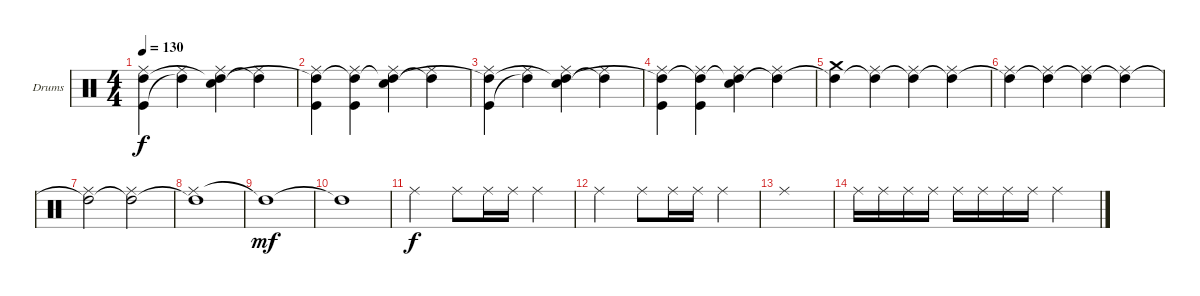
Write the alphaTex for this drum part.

\bracketExtendMode groupsimilarinstruments
\firstSystemTrackNameOrientation horizontal
\otherSystemsTrackNameOrientation horizontal
\track ("Drumkit" "Drums") {instrument percussion}
\staff {score}
\articulation defaults
\ts (4 4)
\tempo 130
\clef neutral
\ks c
("Ride (middle)" "Kick (hit)" "High Tom (hit)"{t}).4{dy f} ("Ride (middle)" "High Tom (hit)"{t}).4 ("Ride (middle)" "Snare (hit) 2" "High Tom (hit)"{t}).4 ("Ride (middle)" "High Tom (hit)"{t}).4 |
("Ride (middle)" "Kick (hit)" "High Tom (hit)"{t}).4 ("Ride (middle)" "Kick (hit)" "High Tom (hit)"{t}).4 ("Ride (middle)" "Snare (hit) 2" "High Tom (hit)"{t}).4 ("Ride (middle)" "High Tom (hit)"{t}).4 |
("Ride (middle)" "Kick (hit)" "High Tom (hit)"{t}).4 ("Ride (middle)" "High Tom (hit)"{t}).4 ("Ride (middle)" "Snare (hit) 2" "High Tom (hit)"{t}).4 ("Ride (middle)" "High Tom (hit)"{t}).4 |
("Ride (middle)" "Kick (hit)" "High Tom (hit)"{t}).4 ("Ride (middle)" "Kick (hit)" "High Tom (hit)"{t}).4 ("Ride (middle)" "Snare (hit) 2" "High Tom (hit)"{t}).4 ("Ride (middle)" "High Tom (hit)"{t}).4 |
("Crash medium (hit)" "High Tom (hit)"{t}).4 ("Ride (middle)" "High Tom (hit)"{t}).4 ("Ride (middle)" "High Tom (hit)"{t}).4 ("Ride (middle)" "High Tom (hit)"{t}).4 |
("Ride (middle)" "High Tom (hit)"{t}).4 ("Ride (middle)" "High Tom (hit)"{t}).4 ("Ride (middle)" "High Tom (hit)"{t}).4 ("Ride (middle)" "High Tom (hit)"{t}).4 |
("Ride (middle)" "High Tom (hit)"{t}).2 ("Ride (middle)" "High Tom (hit)"{t}).2 |
("Ride (middle)" "High Tom (hit)"{t}).1 |
"High Tom (hit)"{t}.1{dy mf} |
"High Tom (hit)"{t}.1 |
"Ride (middle)".2{dy f} "Ride (middle)".8 "Ride (middle)".16 "Ride (middle)".16 "Ride (middle)".4 |
"Ride (middle)".2 "Ride (middle)".8 "Ride (middle)".16 "Ride (middle)".16 "Ride (middle)".4 |
"Ride (middle)".1 |
"Ride (middle)".16 "Ride (middle)".16 "Ride (middle)".16 "Ride (middle)".16 "Ride (middle)".16 "Ride (middle)".16 "Ride (middle)".16 "Ride (middle)".16 "Ride (middle)".2
